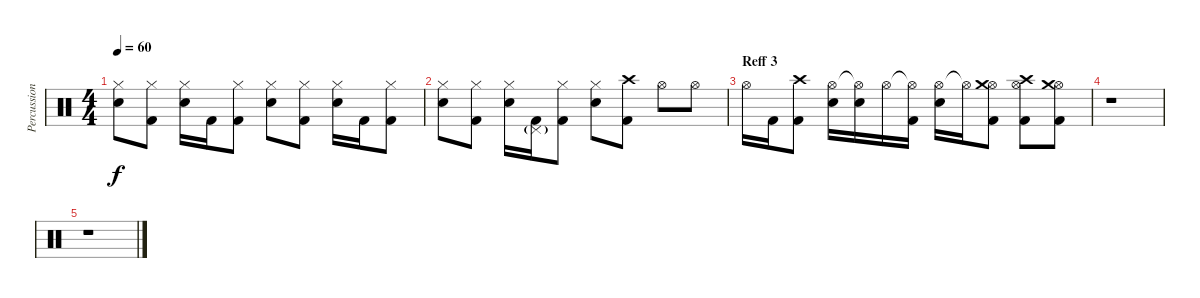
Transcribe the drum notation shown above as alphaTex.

\track ("Percussion 1" "Percussion") {instrument percussion}
\staff {score}
\articulation defaults
\ts (4 4)
\tempo 60
\clef neutral
\ks c
("Hi-Hat (closed)" "Electric Snare (hit)").8{dy f} ("Hi-Hat (closed)" "Kick (hit) 2").8 ("Hi-Hat (closed)" "Electric Snare (hit)").16 "Kick (hit) 2".16 ("Hi-Hat (closed)" "Kick (hit) 2").8 ("Hi-Hat (closed)" "Electric Snare (hit)").8 ("Hi-Hat (closed)" "Kick (hit) 2").8 ("Hi-Hat (closed)" "Electric Snare (hit)").16 "Kick (hit) 2".16 ("Hi-Hat (closed)" "Kick (hit) 2").8 |
("Hi-Hat (closed)" "Electric Snare (hit)").8 ("Hi-Hat (closed)" "Kick (hit) 2").8 ("Hi-Hat (closed)" "Electric Snare (hit)").16 ("Pedal Hi-Hat (hit)"{g} "Kick (hit) 2").16 ("Hi-Hat (closed)" "Kick (hit) 2").8 ("Hi-Hat (closed)" "Electric Snare (hit)").8 ("Crash high (hit)" "Kick (hit) 2").8 "Hi-Hat (open)".8 "Hi-Hat (open)".8 |
\section ("" "Reff 3")
"Hi-Hat (open)".16 "Kick (hit) 2".16 ("Crash high (hit)" "Kick (hit) 2").8 ("Hi-Hat (open)" "Electric Snare (hit)").16 ("Hi-Hat (open)"{t} "Electric Snare (hit)").16 "Hi-Hat (open)".16 ("Hi-Hat (open)"{t} "Kick (hit) 2").16 ("Hi-Hat (open)" "Electric Snare (hit)").16 "Hi-Hat (open)"{t}.16 ("Hi-Hat (open)" "Crash medium (hit)" "Kick (hit) 2").8 ("Hi-Hat (open)" "Crash high (hit)" "Kick (hit) 2").8 ("Hi-Hat (open)" "Crash medium (hit)" "Kick (hit) 2").8 |
r.1 |
r.1
